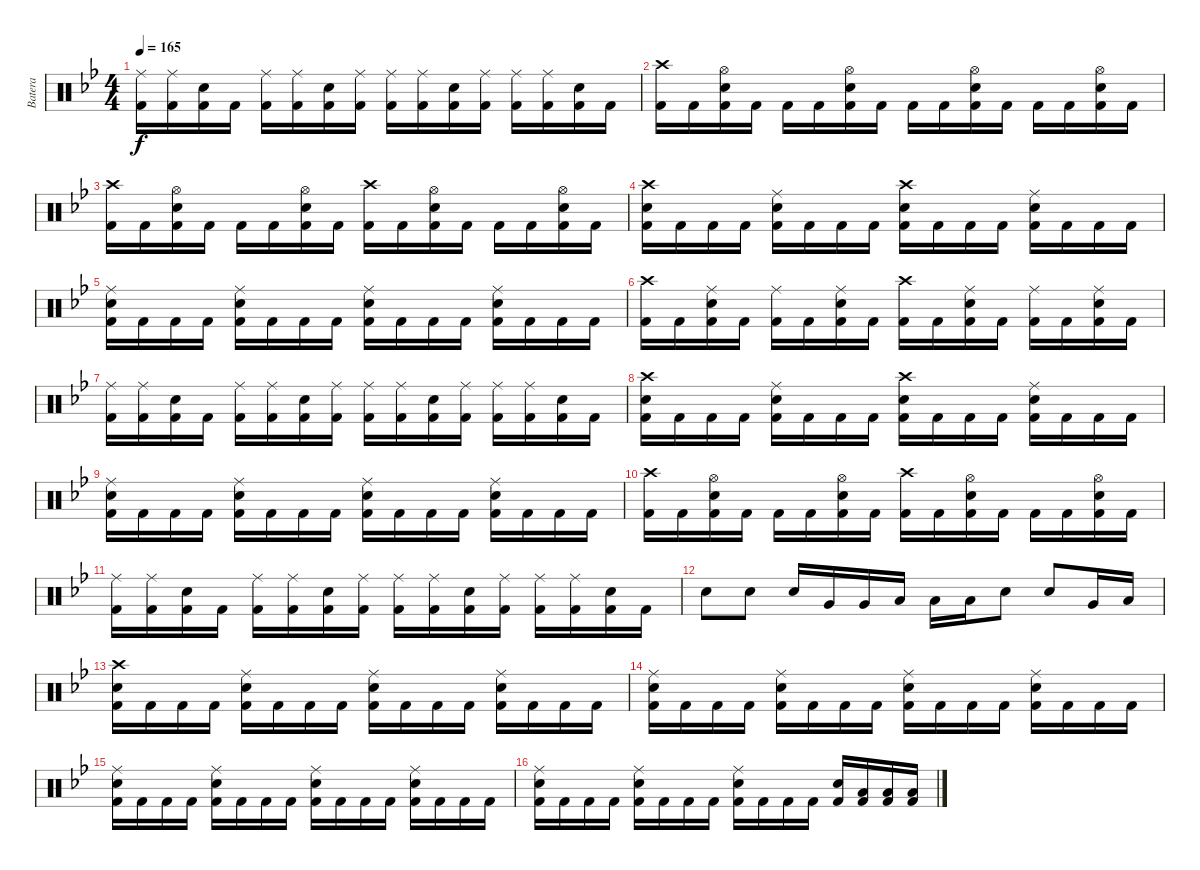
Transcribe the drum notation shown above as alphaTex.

\track ("Batera" "Batera") {instrument percussion}
\staff {score}
\articulation defaults
\ts (4 4)
\tempo 165
\clef neutral
\ks bb
("Ride (middle)" "Kick (hit) 2").16{dy f} ("Ride (middle)" "Kick (hit) 2").16 ("Electric Snare (hit)" "Kick (hit) 2").16 "Kick (hit) 2".16 ("Ride (middle)" "Kick (hit) 2").16 ("Ride (middle)" "Kick (hit) 2").16 ("Electric Snare (hit)" "Kick (hit) 2").16 ("Ride (middle)" "Kick (hit) 2").16 ("Ride (middle)" "Kick (hit) 2").16 ("Ride (middle)" "Kick (hit) 2").16 ("Electric Snare (hit)" "Kick (hit) 2").16 ("Ride (middle)" "Kick (hit) 2").16 ("Ride (middle)" "Kick (hit) 2").16 ("Ride (middle)" "Kick (hit) 2").16 ("Electric Snare (hit)" "Kick (hit) 2").16 "Kick (hit) 2".16 |
("Crash high (hit)" "Kick (hit) 2").16 "Kick (hit) 2".16 ("Hi-Hat (open)" "Electric Snare (hit)" "Kick (hit) 2").16 "Kick (hit) 2".16 "Kick (hit) 2".16 "Kick (hit) 2".16 ("Hi-Hat (open)" "Electric Snare (hit)" "Kick (hit) 2").16 "Kick (hit) 2".16 "Kick (hit) 2".16 "Kick (hit) 2".16 ("Hi-Hat (open)" "Electric Snare (hit)" "Kick (hit) 2").16 "Kick (hit) 2".16 "Kick (hit) 2".16 "Kick (hit) 2".16 ("Hi-Hat (open)" "Electric Snare (hit)" "Kick (hit) 2").16 "Kick (hit) 2".16 |
("Crash high (hit)" "Kick (hit) 2").16 "Kick (hit) 2".16 ("Hi-Hat (open)" "Electric Snare (hit)" "Kick (hit) 2").16 "Kick (hit) 2".16 "Kick (hit) 2".16 "Kick (hit) 2".16 ("Hi-Hat (open)" "Electric Snare (hit)" "Kick (hit) 2").16 "Kick (hit) 2".16 ("Crash high (hit)" "Kick (hit) 2").16 "Kick (hit) 2".16 ("Hi-Hat (open)" "Electric Snare (hit)" "Kick (hit) 2").16 "Kick (hit) 2".16 "Kick (hit) 2".16 "Kick (hit) 2".16 ("Hi-Hat (open)" "Electric Snare (hit)" "Kick (hit) 2").16 "Kick (hit) 2".16 |
("Crash high (hit)" "Electric Snare (hit)" "Kick (hit) 2").16 "Kick (hit) 2".16 "Kick (hit) 2".16 "Kick (hit) 2".16 ("Ride (middle)" "Electric Snare (hit)" "Kick (hit) 2").16 "Kick (hit) 2".16 "Kick (hit) 2".16 "Kick (hit) 2".16 ("Crash high (hit)" "Electric Snare (hit)" "Kick (hit) 2").16 "Kick (hit) 2".16 "Kick (hit) 2".16 "Kick (hit) 2".16 ("Ride (middle)" "Electric Snare (hit)" "Kick (hit) 2").16 "Kick (hit) 2".16 "Kick (hit) 2".16 "Kick (hit) 2".16 |
("Ride (middle)" "Electric Snare (hit)" "Kick (hit) 2").16 "Kick (hit) 2".16 "Kick (hit) 2".16 "Kick (hit) 2".16 ("Ride (middle)" "Electric Snare (hit)" "Kick (hit) 2").16 "Kick (hit) 2".16 "Kick (hit) 2".16 "Kick (hit) 2".16 ("Ride (middle)" "Electric Snare (hit)" "Kick (hit) 2").16 "Kick (hit) 2".16 "Kick (hit) 2".16 "Kick (hit) 2".16 ("Ride (middle)" "Electric Snare (hit)" "Kick (hit) 2").16 "Kick (hit) 2".16 "Kick (hit) 2".16 "Kick (hit) 2".16 |
("Crash high (hit)" "Kick (hit) 2").16 "Kick (hit) 2".16 ("Ride (middle)" "Electric Snare (hit)" "Kick (hit) 2").16 "Kick (hit) 2".16 ("Ride (middle)" "Kick (hit) 2").16 "Kick (hit) 2".16 ("Ride (middle)" "Electric Snare (hit)" "Kick (hit) 2").16 "Kick (hit) 2".16 ("Crash high (hit)" "Kick (hit) 2").16 "Kick (hit) 2".16 ("Ride (middle)" "Electric Snare (hit)" "Kick (hit) 2").16 "Kick (hit) 2".16 ("Ride (middle)" "Kick (hit) 2").16 "Kick (hit) 2".16 ("Ride (middle)" "Electric Snare (hit)" "Kick (hit) 2").16 "Kick (hit) 2".16 |
("Ride (middle)" "Kick (hit) 2").16 ("Ride (middle)" "Kick (hit) 2").16 ("Electric Snare (hit)" "Kick (hit) 2").16 "Kick (hit) 2".16 ("Ride (middle)" "Kick (hit) 2").16 ("Ride (middle)" "Kick (hit) 2").16 ("Electric Snare (hit)" "Kick (hit) 2").16 ("Ride (middle)" "Kick (hit) 2").16 ("Ride (middle)" "Kick (hit) 2").16 ("Ride (middle)" "Kick (hit) 2").16 ("Electric Snare (hit)" "Kick (hit) 2").16 ("Ride (middle)" "Kick (hit) 2").16 ("Ride (middle)" "Kick (hit) 2").16 ("Ride (middle)" "Kick (hit) 2").16 ("Electric Snare (hit)" "Kick (hit) 2").16 "Kick (hit) 2".16 |
("Crash high (hit)" "Electric Snare (hit)" "Kick (hit) 2").16 "Kick (hit) 2".16 "Kick (hit) 2".16 "Kick (hit) 2".16 ("Ride (middle)" "Electric Snare (hit)" "Kick (hit) 2").16 "Kick (hit) 2".16 "Kick (hit) 2".16 "Kick (hit) 2".16 ("Crash high (hit)" "Electric Snare (hit)" "Kick (hit) 2").16 "Kick (hit) 2".16 "Kick (hit) 2".16 "Kick (hit) 2".16 ("Ride (middle)" "Electric Snare (hit)" "Kick (hit) 2").16 "Kick (hit) 2".16 "Kick (hit) 2".16 "Kick (hit) 2".16 |
("Ride (middle)" "Electric Snare (hit)" "Kick (hit) 2").16 "Kick (hit) 2".16 "Kick (hit) 2".16 "Kick (hit) 2".16 ("Ride (middle)" "Electric Snare (hit)" "Kick (hit) 2").16 "Kick (hit) 2".16 "Kick (hit) 2".16 "Kick (hit) 2".16 ("Ride (middle)" "Electric Snare (hit)" "Kick (hit) 2").16 "Kick (hit) 2".16 "Kick (hit) 2".16 "Kick (hit) 2".16 ("Ride (middle)" "Electric Snare (hit)" "Kick (hit) 2").16 "Kick (hit) 2".16 "Kick (hit) 2".16 "Kick (hit) 2".16 |
("Crash high (hit)" "Kick (hit) 2").16 "Kick (hit) 2".16 ("Hi-Hat (open)" "Electric Snare (hit)" "Kick (hit) 2").16 "Kick (hit) 2".16 "Kick (hit) 2".16 "Kick (hit) 2".16 ("Hi-Hat (open)" "Electric Snare (hit)" "Kick (hit) 2").16 "Kick (hit) 2".16 ("Crash high (hit)" "Kick (hit) 2").16 "Kick (hit) 2".16 ("Hi-Hat (open)" "Electric Snare (hit)" "Kick (hit) 2").16 "Kick (hit) 2".16 "Kick (hit) 2".16 "Kick (hit) 2".16 ("Hi-Hat (open)" "Electric Snare (hit)" "Kick (hit) 2").16 "Kick (hit) 2".16 |
("Ride (middle)" "Kick (hit) 2").16 ("Ride (middle)" "Kick (hit) 2").16 ("Electric Snare (hit)" "Kick (hit) 2").16 "Kick (hit) 2".16 ("Ride (middle)" "Kick (hit) 2").16 ("Ride (middle)" "Kick (hit) 2").16 ("Electric Snare (hit)" "Kick (hit) 2").16 ("Ride (middle)" "Kick (hit) 2").16 ("Ride (middle)" "Kick (hit) 2").16 ("Ride (middle)" "Kick (hit) 2").16 ("Electric Snare (hit)" "Kick (hit) 2").16 ("Ride (middle)" "Kick (hit) 2").16 ("Ride (middle)" "Kick (hit) 2").16 ("Ride (middle)" "Kick (hit) 2").16 ("Electric Snare (hit)" "Kick (hit) 2").16 "Kick (hit) 2".16 |
"Electric Snare (hit)".8 "Electric Snare (hit)".8 "Electric Snare (hit)".16 "Very Low Tom (hit)".16 "Very Low Tom (hit)".16 "Low Floor Tom (hit)".16 "Low Tom (hit)".16 "Low Floor Tom (hit)".16 "Electric Snare (hit)".8 "Electric Snare (hit)".8 "Very Low Tom (hit)".16 "Low Floor Tom (hit)".16 |
("Crash high (hit)" "Electric Snare (hit)" "Kick (hit) 2").16 "Kick (hit) 2".16 "Kick (hit) 2".16 "Kick (hit) 2".16 ("Ride (middle)" "Electric Snare (hit)" "Kick (hit) 2").16 "Kick (hit) 2".16 "Kick (hit) 2".16 "Kick (hit) 2".16 ("Ride (middle)" "Electric Snare (hit)" "Kick (hit) 2").16 "Kick (hit) 2".16 "Kick (hit) 2".16 "Kick (hit) 2".16 ("Ride (middle)" "Electric Snare (hit)" "Kick (hit) 2").16 "Kick (hit) 2".16 "Kick (hit) 2".16 "Kick (hit) 2".16 |
("Ride (middle)" "Electric Snare (hit)" "Kick (hit) 2").16 "Kick (hit) 2".16 "Kick (hit) 2".16 "Kick (hit) 2".16 ("Ride (middle)" "Electric Snare (hit)" "Kick (hit) 2").16 "Kick (hit) 2".16 "Kick (hit) 2".16 "Kick (hit) 2".16 ("Ride (middle)" "Electric Snare (hit)" "Kick (hit) 2").16 "Kick (hit) 2".16 "Kick (hit) 2".16 "Kick (hit) 2".16 ("Ride (middle)" "Electric Snare (hit)" "Kick (hit) 2").16 "Kick (hit) 2".16 "Kick (hit) 2".16 "Kick (hit) 2".16 |
("Ride (middle)" "Electric Snare (hit)" "Kick (hit) 2").16 "Kick (hit) 2".16 "Kick (hit) 2".16 "Kick (hit) 2".16 ("Ride (middle)" "Electric Snare (hit)" "Kick (hit) 2").16 "Kick (hit) 2".16 "Kick (hit) 2".16 "Kick (hit) 2".16 ("Ride (middle)" "Electric Snare (hit)" "Kick (hit) 2").16 "Kick (hit) 2".16 "Kick (hit) 2".16 "Kick (hit) 2".16 ("Ride (middle)" "Electric Snare (hit)" "Kick (hit) 2").16 "Kick (hit) 2".16 "Kick (hit) 2".16 "Kick (hit) 2".16 |
("Ride (middle)" "Electric Snare (hit)" "Kick (hit) 2").16 "Kick (hit) 2".16 "Kick (hit) 2".16 "Kick (hit) 2".16 ("Ride (middle)" "Electric Snare (hit)" "Kick (hit) 2").16 "Kick (hit) 2".16 "Kick (hit) 2".16 "Kick (hit) 2".16 ("Ride (middle)" "Electric Snare (hit)" "Kick (hit) 2").16 "Kick (hit) 2".16 "Kick (hit) 2".16 "Kick (hit) 2".16 ("Electric Snare (hit)" "Kick (hit) 2").16 ("Low Floor Tom (hit)" "Kick (hit) 2").16 ("Low Tom (hit)" "Kick (hit) 2").16 ("Low Floor Tom (hit)" "Kick (hit) 2").16
